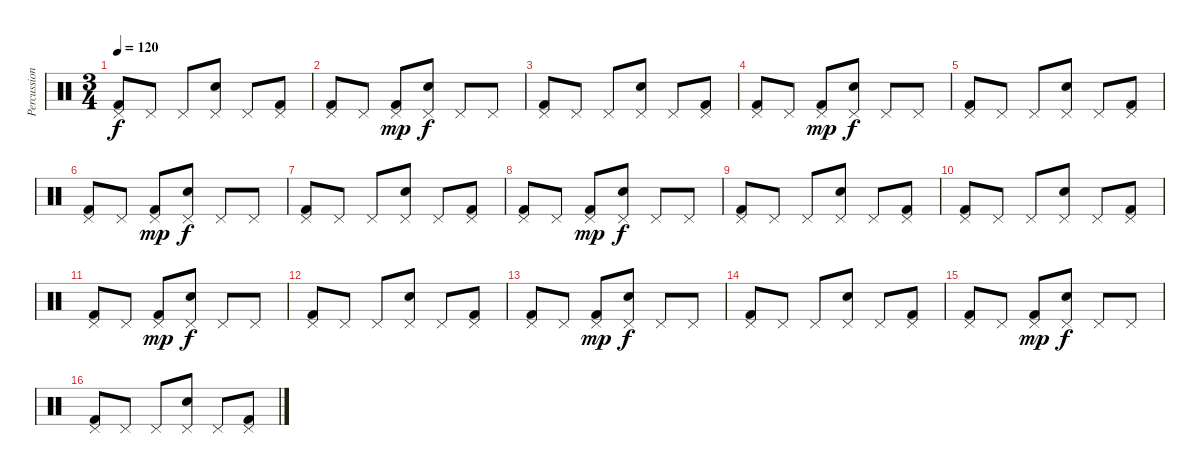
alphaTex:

\track ("Percussions" "Percussion") {instrument percussion}
\staff {score}
\articulation defaults
\ts (3 4)
\tempo 120
\clef neutral
\ks c
("Pedal Hi-Hat (hit)" "Kick (hit) 2").8{dy f} "Pedal Hi-Hat (hit)".8 "Pedal Hi-Hat (hit)".8 ("Pedal Hi-Hat (hit)" "Electric Snare (hit)").8 "Pedal Hi-Hat (hit)".8 ("Pedal Hi-Hat (hit)" "Kick (hit) 2").8 |
("Pedal Hi-Hat (hit)" "Kick (hit) 2").8 "Pedal Hi-Hat (hit)".8 ("Pedal Hi-Hat (hit)" "Kick (hit) 2").8{dy mp} ("Pedal Hi-Hat (hit)" "Electric Snare (hit)").8{dy f} "Pedal Hi-Hat (hit)".8 "Pedal Hi-Hat (hit)".8 |
("Pedal Hi-Hat (hit)" "Kick (hit) 2").8 "Pedal Hi-Hat (hit)".8 "Pedal Hi-Hat (hit)".8 ("Pedal Hi-Hat (hit)" "Electric Snare (hit)").8 "Pedal Hi-Hat (hit)".8 ("Pedal Hi-Hat (hit)" "Kick (hit) 2").8 |
("Pedal Hi-Hat (hit)" "Kick (hit) 2").8 "Pedal Hi-Hat (hit)".8 ("Pedal Hi-Hat (hit)" "Kick (hit) 2").8{dy mp} ("Pedal Hi-Hat (hit)" "Electric Snare (hit)").8{dy f} "Pedal Hi-Hat (hit)".8 "Pedal Hi-Hat (hit)".8 |
("Pedal Hi-Hat (hit)" "Kick (hit) 2").8 "Pedal Hi-Hat (hit)".8 "Pedal Hi-Hat (hit)".8 ("Pedal Hi-Hat (hit)" "Electric Snare (hit)").8 "Pedal Hi-Hat (hit)".8 ("Pedal Hi-Hat (hit)" "Kick (hit) 2").8 |
("Pedal Hi-Hat (hit)" "Kick (hit) 2").8 "Pedal Hi-Hat (hit)".8 ("Pedal Hi-Hat (hit)" "Kick (hit) 2").8{dy mp} ("Pedal Hi-Hat (hit)" "Electric Snare (hit)").8{dy f} "Pedal Hi-Hat (hit)".8 "Pedal Hi-Hat (hit)".8 |
("Pedal Hi-Hat (hit)" "Kick (hit) 2").8 "Pedal Hi-Hat (hit)".8 "Pedal Hi-Hat (hit)".8 ("Pedal Hi-Hat (hit)" "Electric Snare (hit)").8 "Pedal Hi-Hat (hit)".8 ("Pedal Hi-Hat (hit)" "Kick (hit) 2").8 |
("Pedal Hi-Hat (hit)" "Kick (hit) 2").8 "Pedal Hi-Hat (hit)".8 ("Pedal Hi-Hat (hit)" "Kick (hit) 2").8{dy mp} ("Pedal Hi-Hat (hit)" "Electric Snare (hit)").8{dy f} "Pedal Hi-Hat (hit)".8 "Pedal Hi-Hat (hit)".8 |
("Pedal Hi-Hat (hit)" "Kick (hit) 2").8 "Pedal Hi-Hat (hit)".8 "Pedal Hi-Hat (hit)".8 ("Pedal Hi-Hat (hit)" "Electric Snare (hit)").8 "Pedal Hi-Hat (hit)".8 ("Pedal Hi-Hat (hit)" "Kick (hit) 2").8 |
("Pedal Hi-Hat (hit)" "Kick (hit) 2").8 "Pedal Hi-Hat (hit)".8 "Pedal Hi-Hat (hit)".8 ("Pedal Hi-Hat (hit)" "Electric Snare (hit)").8 "Pedal Hi-Hat (hit)".8 ("Pedal Hi-Hat (hit)" "Kick (hit) 2").8 |
("Pedal Hi-Hat (hit)" "Kick (hit) 2").8 "Pedal Hi-Hat (hit)".8 ("Pedal Hi-Hat (hit)" "Kick (hit) 2").8{dy mp} ("Pedal Hi-Hat (hit)" "Electric Snare (hit)").8{dy f} "Pedal Hi-Hat (hit)".8 "Pedal Hi-Hat (hit)".8 |
("Pedal Hi-Hat (hit)" "Kick (hit) 2").8 "Pedal Hi-Hat (hit)".8 "Pedal Hi-Hat (hit)".8 ("Pedal Hi-Hat (hit)" "Electric Snare (hit)").8 "Pedal Hi-Hat (hit)".8 ("Pedal Hi-Hat (hit)" "Kick (hit) 2").8 |
("Pedal Hi-Hat (hit)" "Kick (hit) 2").8 "Pedal Hi-Hat (hit)".8 ("Pedal Hi-Hat (hit)" "Kick (hit) 2").8{dy mp} ("Pedal Hi-Hat (hit)" "Electric Snare (hit)").8{dy f} "Pedal Hi-Hat (hit)".8 "Pedal Hi-Hat (hit)".8 |
("Pedal Hi-Hat (hit)" "Kick (hit) 2").8 "Pedal Hi-Hat (hit)".8 "Pedal Hi-Hat (hit)".8 ("Pedal Hi-Hat (hit)" "Electric Snare (hit)").8 "Pedal Hi-Hat (hit)".8 ("Pedal Hi-Hat (hit)" "Kick (hit) 2").8 |
("Pedal Hi-Hat (hit)" "Kick (hit) 2").8 "Pedal Hi-Hat (hit)".8 ("Pedal Hi-Hat (hit)" "Kick (hit) 2").8{dy mp} ("Pedal Hi-Hat (hit)" "Electric Snare (hit)").8{dy f} "Pedal Hi-Hat (hit)".8 "Pedal Hi-Hat (hit)".8 |
("Pedal Hi-Hat (hit)" "Kick (hit) 2").8 "Pedal Hi-Hat (hit)".8 "Pedal Hi-Hat (hit)".8 ("Pedal Hi-Hat (hit)" "Electric Snare (hit)").8 "Pedal Hi-Hat (hit)".8 ("Pedal Hi-Hat (hit)" "Kick (hit) 2").8
